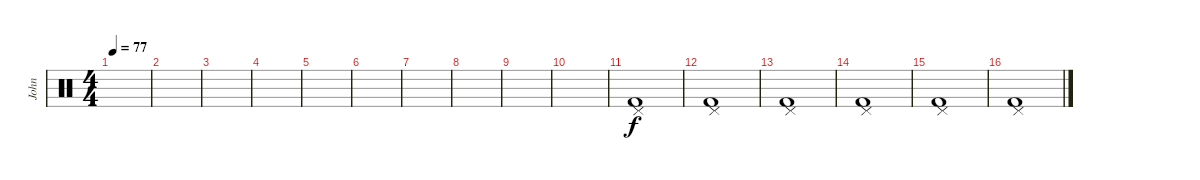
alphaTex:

\track ("John" "John") {instrument percussion}
\staff {score}
\articulation defaults
\ts (4 4)
\tempo 77
\clef neutral
\ks c
|
|
|
|
|
|
|
|
|
|
("Pedal Hi-Hat (hit)" "Kick (hit) 2").1 |
("Pedal Hi-Hat (hit)" "Kick (hit) 2").1 |
("Pedal Hi-Hat (hit)" "Kick (hit) 2").1 |
("Pedal Hi-Hat (hit)" "Kick (hit) 2").1 |
("Pedal Hi-Hat (hit)" "Kick (hit) 2").1 |
("Pedal Hi-Hat (hit)" "Kick (hit) 2").1
